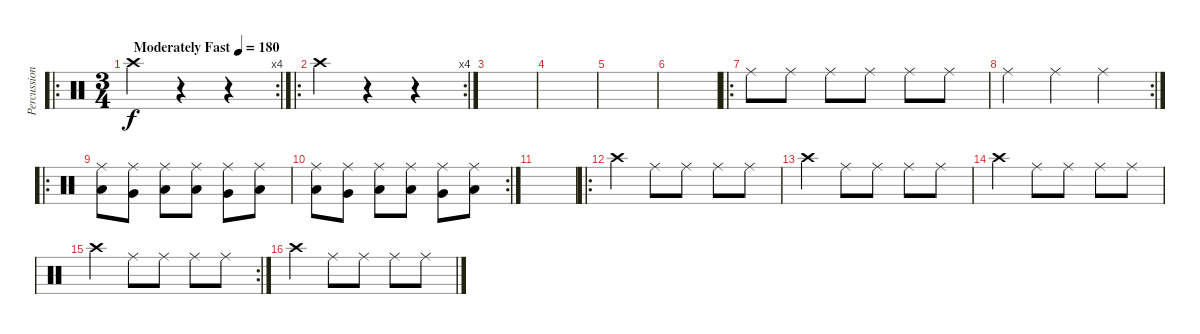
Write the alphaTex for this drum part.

\track ("Percussion" "Percussion") {instrument percussion}
\staff {score}
\articulation defaults
\ro
\rc 4
\ts (3 4)
\tempo (180 "Moderately Fast")
\clef neutral
\ks c "Crash high (hit)".4{dy f}
r.4 r.4 |
\ro
\rc 4 "Crash high (hit)".4
r.4 r.4 |
|
|
|
|
\ro "Ride (middle)".8 "Ride (middle)".8 "Ride (middle)".8 "Ride (middle)".8 "Ride (middle)".8 "Ride (middle)".8
|
\rc 2 "Ride (middle)".4 "Ride (middle)".4 "Ride (middle)".4
|
\ro
("Ride (middle)" "Low Floor Tom (hit)").8 ("Ride (middle)" "Very Low Tom (hit)").8 ("Ride (middle)" "Low Tom (hit)").8 ("Ride (middle)" "Low Floor Tom (hit)").8 ("Ride (middle)" "Very Low Tom (hit)").8 ("Ride (middle)" "Low Tom (hit)").8 |
\rc 2
("Ride (middle)" "Low Floor Tom (hit)").8 ("Ride (middle)" "Very Low Tom (hit)").8 ("Ride (middle)" "Low Tom (hit)").8 ("Ride (middle)" "Low Floor Tom (hit)").8 ("Ride (middle)" "Very Low Tom (hit)").8 ("Ride (middle)" "Low Tom (hit)").8 |
|
\ro "Crash high (hit)".4 "Ride (middle)".8 "Ride (middle)".8 "Ride (middle)".8 "Ride (middle)".8
|
"Crash high (hit)".4 "Ride (middle)".8 "Ride (middle)".8 "Ride (middle)".8 "Ride (middle)".8 |
"Crash high (hit)".4 "Ride (middle)".8 "Ride (middle)".8 "Ride (middle)".8 "Ride (middle)".8 |
\rc 2 "Crash high (hit)".4 "Ride (middle)".8 "Ride (middle)".8 "Ride (middle)".8 "Ride (middle)".8
|
"Crash high (hit)".4 "Ride (middle)".8 "Ride (middle)".8 "Ride (middle)".8 "Ride (middle)".8
